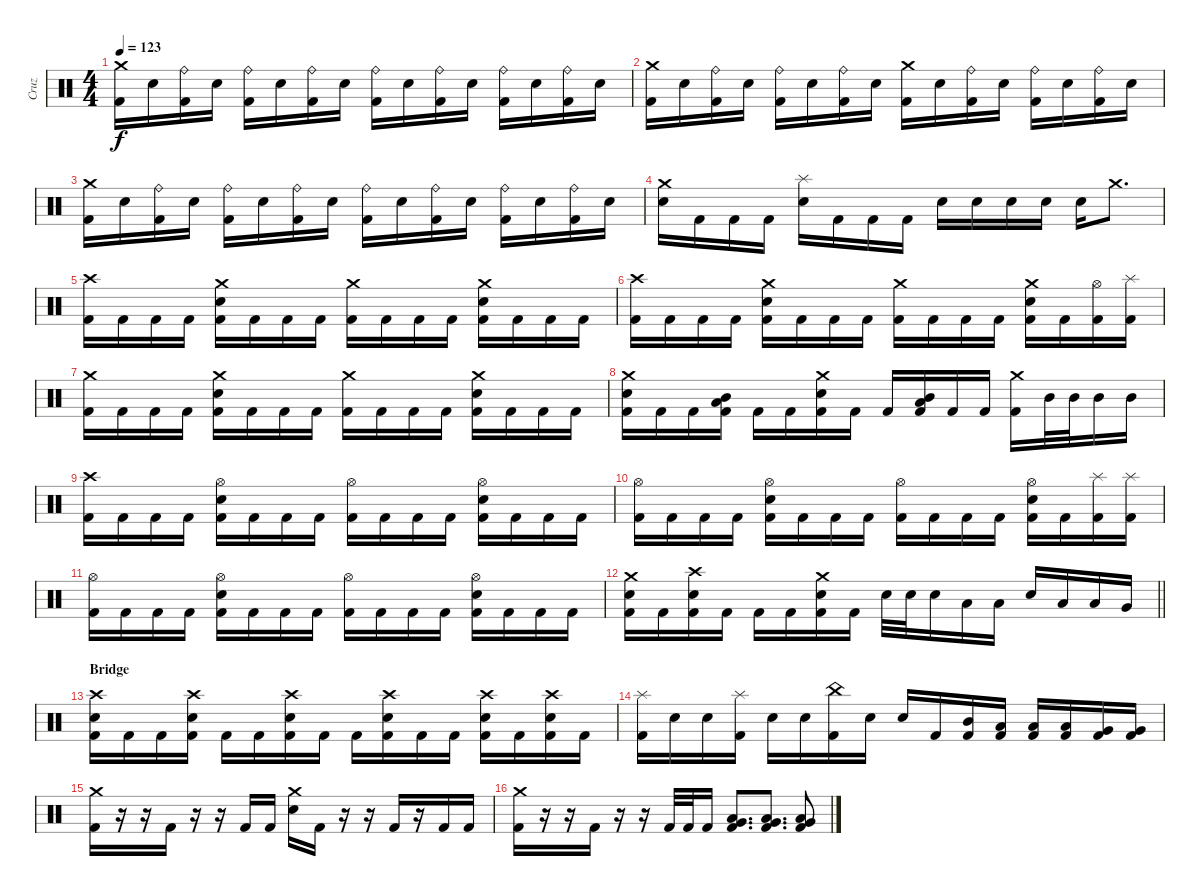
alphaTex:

\track ("Cruz" "Cruz") {instrument percussion}
\staff {score}
\articulation defaults
\ts (4 4)
\tempo 123
\clef neutral
\ks c
("Crash medium (hit)" "Kick (hit) 2").16{dy f} "Snare (hit) 2".16 ("Ride (bell)" "Kick (hit) 2").16 "Snare (hit) 2".16 ("Ride (bell)" "Kick (hit) 2").16 "Snare (hit) 2".16 ("Ride (bell)" "Kick (hit) 2").16 "Snare (hit) 2".16 ("Ride (bell)" "Kick (hit) 2").16 "Snare (hit) 2".16 ("Ride (bell)" "Kick (hit) 2").16 "Snare (hit) 2".16 ("Ride (bell)" "Kick (hit) 2").16 "Snare (hit) 2".16 ("Ride (bell)" "Kick (hit) 2").16 "Snare (hit) 2".16 |
("Crash medium (hit)" "Kick (hit) 2").16 "Snare (hit) 2".16 ("Ride (bell)" "Kick (hit) 2").16 "Snare (hit) 2".16 ("Ride (bell)" "Kick (hit) 2").16 "Snare (hit) 2".16 ("Ride (bell)" "Kick (hit) 2").16 "Snare (hit) 2".16 ("Crash medium (hit)" "Kick (hit) 2").16 "Snare (hit) 2".16 ("Ride (bell)" "Kick (hit) 2").16 "Snare (hit) 2".16 ("Ride (bell)" "Kick (hit) 2").16 "Snare (hit) 2".16 ("Ride (bell)" "Kick (hit) 2").16 "Snare (hit) 2".16 |
("Crash medium (hit)" "Kick (hit) 2").16 "Snare (hit) 2".16 ("Ride (bell)" "Kick (hit) 2").16 "Snare (hit) 2".16 ("Ride (bell)" "Kick (hit) 2").16 "Snare (hit) 2".16 ("Ride (bell)" "Kick (hit) 2").16 "Snare (hit) 2".16 ("Ride (bell)" "Kick (hit) 2").16 "Snare (hit) 2".16 ("Ride (bell)" "Kick (hit) 2").16 "Snare (hit) 2".16 ("Ride (bell)" "Kick (hit) 2").16 "Snare (hit) 2".16 ("Ride (bell)" "Kick (hit) 2").16 "Snare (hit) 2".16 |
("Crash medium (hit)" "Snare (hit) 2").16 "Kick (hit) 2".16 "Kick (hit) 2".16 "Kick (hit) 2".16 ("Splash (hit)" "Snare (hit) 2").16 "Kick (hit) 2".16 "Kick (hit) 2".16 "Kick (hit) 2".16 "Snare (hit) 2".16 "Snare (hit) 2".16 "Snare (hit) 2".16 "Snare (hit) 2".16 "Snare (hit) 2".16 "Crash medium (hit)".8{d} |
("Crash high (hit)" "Kick (hit) 2").16 "Kick (hit) 2".16 "Kick (hit) 2".16 "Kick (hit) 2".16 ("Crash medium (hit)" "Snare (hit) 2" "Kick (hit) 2").16 "Kick (hit) 2".16 "Kick (hit) 2".16 "Kick (hit) 2".16 ("Crash medium (hit)" "Kick (hit) 2").16 "Kick (hit) 2".16 "Kick (hit) 2".16 "Kick (hit) 2".16 ("Crash medium (hit)" "Snare (hit) 2" "Kick (hit) 2").16 "Kick (hit) 2".16 "Kick (hit) 2".16 "Kick (hit) 2".16 |
("Crash high (hit)" "Kick (hit) 2").16 "Kick (hit) 2".16 "Kick (hit) 2".16 "Kick (hit) 2".16 ("Crash medium (hit)" "Snare (hit) 2" "Kick (hit) 2").16 "Kick (hit) 2".16 "Kick (hit) 2".16 "Kick (hit) 2".16 ("Crash medium (hit)" "Kick (hit) 2").16 "Kick (hit) 2".16 "Kick (hit) 2".16 "Kick (hit) 2".16 ("Crash medium (hit)" "Snare (hit) 2" "Kick (hit) 2").16 "Kick (hit) 2".16 ("Hi-Hat (open)" "Kick (hit) 2").16 ("Splash (hit)" "Kick (hit) 2").16 |
("Crash medium (hit)" "Kick (hit) 2").16 "Kick (hit) 2".16 "Kick (hit) 2".16 "Kick (hit) 2".16 ("Crash medium (hit)" "Snare (hit) 2" "Kick (hit) 2").16 "Kick (hit) 2".16 "Kick (hit) 2".16 "Kick (hit) 2".16 ("Crash medium (hit)" "Kick (hit) 2").16 "Kick (hit) 2".16 "Kick (hit) 2".16 "Kick (hit) 2".16 ("Crash medium (hit)" "Snare (hit) 2" "Kick (hit) 2").16 "Kick (hit) 2".16 "Kick (hit) 2".16 "Kick (hit) 2".16 |
("Crash medium (hit)" "Snare (hit) 2" "Kick (hit) 2").16 "Kick (hit) 2".16 "Kick (hit) 2".16 ("Mid Tom (hit)" "Low Tom (hit)" "Kick (hit) 2").16 "Kick (hit) 2".16 "Kick (hit) 2".16 ("Crash medium (hit)" "Snare (hit) 2" "Kick (hit) 2").16 "Kick (hit) 2".16 "Kick (hit) 2".16 ("Mid Tom (hit)" "Low Tom (hit)" "Kick (hit) 2").16 "Kick (hit) 2".16 "Kick (hit) 2".16 ("Crash medium (hit)" "Kick (hit) 2").16 "Mid Tom (hit)".32 "Mid Tom (hit)".32 "Mid Tom (hit)".16 "Mid Tom (hit)".16 |
("Crash high (hit)" "Kick (hit) 2").16 "Kick (hit) 2".16 "Kick (hit) 2".16 "Kick (hit) 2".16 ("Hi-Hat (open)" "Snare (hit) 2" "Kick (hit) 2").16 "Kick (hit) 2".16 "Kick (hit) 2".16 "Kick (hit) 2".16 ("Hi-Hat (open)" "Kick (hit) 2").16 "Kick (hit) 2".16 "Kick (hit) 2".16 "Kick (hit) 2".16 ("Hi-Hat (open)" "Snare (hit) 2" "Kick (hit) 2").16 "Kick (hit) 2".16 "Kick (hit) 2".16 "Kick (hit) 2".16 |
("Hi-Hat (open)" "Kick (hit) 2").16 "Kick (hit) 2".16 "Kick (hit) 2".16 "Kick (hit) 2".16 ("Hi-Hat (open)" "Snare (hit) 2" "Kick (hit) 2").16 "Kick (hit) 2".16 "Kick (hit) 2".16 "Kick (hit) 2".16 ("Hi-Hat (open)" "Kick (hit) 2").16 "Kick (hit) 2".16 "Kick (hit) 2".16 "Kick (hit) 2".16 ("Hi-Hat (open)" "Snare (hit) 2" "Kick (hit) 2").16 "Kick (hit) 2".16 ("Splash (hit)" "Kick (hit) 2").16 ("Splash (hit)" "Kick (hit) 2").16 |
("Hi-Hat (open)" "Kick (hit) 2").16 "Kick (hit) 2".16 "Kick (hit) 2".16 "Kick (hit) 2".16 ("Hi-Hat (open)" "Snare (hit) 2" "Kick (hit) 2").16 "Kick (hit) 2".16 "Kick (hit) 2".16 "Kick (hit) 2".16 ("Hi-Hat (open)" "Kick (hit) 2").16 "Kick (hit) 2".16 "Kick (hit) 2".16 "Kick (hit) 2".16 ("Hi-Hat (open)" "Snare (hit) 2" "Kick (hit) 2").16 "Kick (hit) 2".16 "Kick (hit) 2".16 "Kick (hit) 2".16 |
\barLineRight lightlight
("Crash medium (hit)" "Snare (hit) 2" "Kick (hit) 2").16 "Kick (hit) 2".16 ("Crash high (hit)" "Snare (hit) 2" "Kick (hit) 2").16 "Kick (hit) 2".16 "Kick (hit) 2".16 "Kick (hit) 2".16 ("Crash medium (hit)" "Snare (hit) 2" "Kick (hit) 2").16 "Kick (hit) 2".16 "Snare (hit) 2".32 "Snare (hit) 2".32 "Snare (hit) 2".16 "Low Tom (hit)".16 "Low Tom (hit)".16 "Snare (hit) 2".16 "Low Tom (hit)".16 "Low Tom (hit)".16 "Very Low Tom (hit)".16 |
\section ("" "Bridge")
("Crash high (hit)" "Snare (hit) 2" "Kick (hit) 2").16 "Kick (hit) 2".16 "Kick (hit) 2".16 ("Crash high (hit)" "Snare (hit) 2" "Kick (hit) 2").16 "Kick (hit) 2".16 "Kick (hit) 2".16 ("Crash high (hit)" "Snare (hit) 2" "Kick (hit) 2").16 "Kick (hit) 2".16 "Kick (hit) 2".16 ("Crash high (hit)" "Snare (hit) 2" "Kick (hit) 2").16 "Kick (hit) 2".16 "Kick (hit) 2".16 ("Crash high (hit)" "Snare (hit) 2" "Kick (hit) 2").16 "Kick (hit) 2".16 ("Crash high (hit)" "Snare (hit) 2" "Kick (hit) 2").16 "Kick (hit) 2".16 |
("Splash (hit)" "Kick (hit) 2").16 "Snare (hit) 2".16 "Snare (hit) 2".16 ("Splash (hit)" "Kick (hit) 2").16 "Snare (hit) 2".16 "Snare (hit) 2".16 ("China (hit)" "Kick (hit) 2").16 "Snare (hit) 2".16 "Snare (hit) 2".16 "Kick (hit) 2".16 ("Mid Tom (hit)" "Kick (hit) 2").16 ("Low Tom (hit)" "Kick (hit) 2").16 ("Low Tom (hit)" "Kick (hit) 2").16 ("Low Tom (hit)" "Kick (hit) 2").16 ("Very Low Tom (hit)" "Kick (hit) 2").16 ("Very Low Tom (hit)" "Kick (hit) 2").16 |
("Crash medium (hit)" "Kick (hit) 2").16 r.16 r.16 "Kick (hit) 2".16 r.16 r.16 "Kick (hit) 2".16 "Kick (hit) 2".16 ("Crash medium (hit)" "Snare (hit) 2").16 "Kick (hit) 2".16 r.16 r.16 "Kick (hit) 2".16 r.16 "Kick (hit) 2".16 "Kick (hit) 2".16 |
("Crash medium (hit)" "Kick (hit) 2").16 r.16 r.16 "Kick (hit) 2".16 r.16 r.16 "Kick (hit) 2".32 "Kick (hit) 2".32 "Kick (hit) 2".16 ("Very Low Tom (hit)" "Low Floor Tom (hit)" "Kick (hit) 2").8{d} ("Very Low Tom (hit)" "Low Floor Tom (hit)" "Kick (hit) 2").8{d} ("Very Low Tom (hit)" "Low Floor Tom (hit)" "Kick (hit) 2").8
